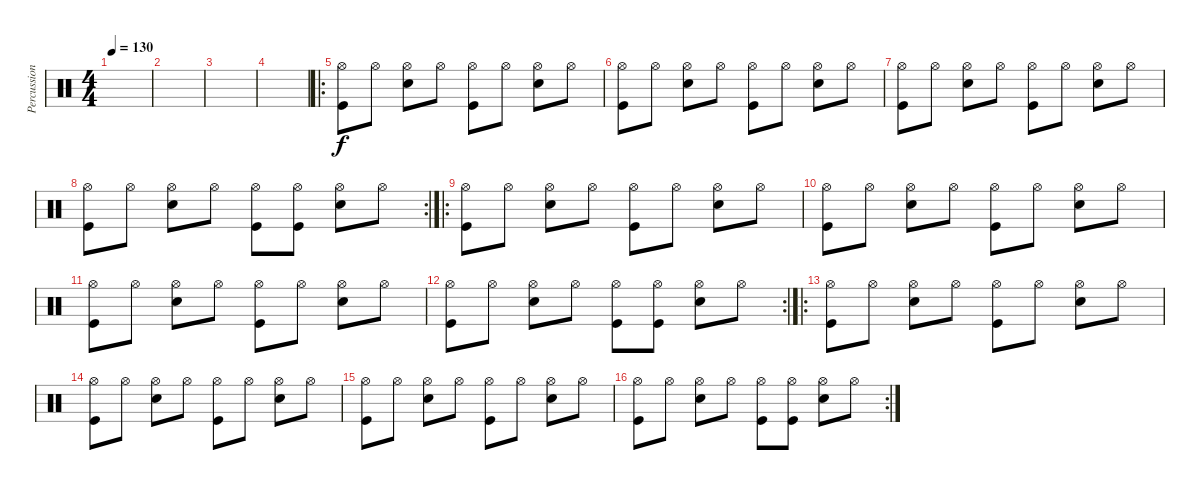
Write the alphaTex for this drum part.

\track ("Percussion" "Percussion") {instrument percussion}
\staff {score}
\articulation defaults
\ts (4 4)
\tempo 130
\clef neutral
\ks c
|
|
|
|
\ro
("Hi-Hat (open)" "Kick (hit)").8 "Hi-Hat (open)".8 ("Hi-Hat (open)" "Snare (hit) 2").8 "Hi-Hat (open)".8 ("Hi-Hat (open)" "Kick (hit)").8 "Hi-Hat (open)".8 ("Hi-Hat (open)" "Snare (hit) 2").8 "Hi-Hat (open)".8 |
("Hi-Hat (open)" "Kick (hit)").8 "Hi-Hat (open)".8 ("Hi-Hat (open)" "Snare (hit) 2").8 "Hi-Hat (open)".8 ("Hi-Hat (open)" "Kick (hit)").8 "Hi-Hat (open)".8 ("Hi-Hat (open)" "Snare (hit) 2").8 "Hi-Hat (open)".8 |
("Hi-Hat (open)" "Kick (hit)").8 "Hi-Hat (open)".8 ("Hi-Hat (open)" "Snare (hit) 2").8 "Hi-Hat (open)".8 ("Hi-Hat (open)" "Kick (hit)").8 "Hi-Hat (open)".8 ("Hi-Hat (open)" "Snare (hit) 2").8 "Hi-Hat (open)".8 |
\rc 2
("Hi-Hat (open)" "Kick (hit)").8 "Hi-Hat (open)".8 ("Hi-Hat (open)" "Snare (hit) 2").8 "Hi-Hat (open)".8 ("Hi-Hat (open)" "Kick (hit)").8 ("Hi-Hat (open)" "Kick (hit)").8 ("Hi-Hat (open)" "Snare (hit) 2").8 "Hi-Hat (open)".8 |
\ro
("Hi-Hat (open)" "Kick (hit)").8 "Hi-Hat (open)".8 ("Hi-Hat (open)" "Snare (hit) 2").8 "Hi-Hat (open)".8 ("Hi-Hat (open)" "Kick (hit)").8 "Hi-Hat (open)".8 ("Hi-Hat (open)" "Snare (hit) 2").8 "Hi-Hat (open)".8 |
("Hi-Hat (open)" "Kick (hit)").8 "Hi-Hat (open)".8 ("Hi-Hat (open)" "Snare (hit) 2").8 "Hi-Hat (open)".8 ("Hi-Hat (open)" "Kick (hit)").8 "Hi-Hat (open)".8 ("Hi-Hat (open)" "Snare (hit) 2").8 "Hi-Hat (open)".8 |
("Hi-Hat (open)" "Kick (hit)").8 "Hi-Hat (open)".8 ("Hi-Hat (open)" "Snare (hit) 2").8 "Hi-Hat (open)".8 ("Hi-Hat (open)" "Kick (hit)").8 "Hi-Hat (open)".8 ("Hi-Hat (open)" "Snare (hit) 2").8 "Hi-Hat (open)".8 |
\rc 2
("Hi-Hat (open)" "Kick (hit)").8 "Hi-Hat (open)".8 ("Hi-Hat (open)" "Snare (hit) 2").8 "Hi-Hat (open)".8 ("Hi-Hat (open)" "Kick (hit)").8 ("Hi-Hat (open)" "Kick (hit)").8 ("Hi-Hat (open)" "Snare (hit) 2").8 "Hi-Hat (open)".8 |
\ro
("Hi-Hat (open)" "Kick (hit)").8 "Hi-Hat (open)".8 ("Hi-Hat (open)" "Snare (hit) 2").8 "Hi-Hat (open)".8 ("Hi-Hat (open)" "Kick (hit)").8 "Hi-Hat (open)".8 ("Hi-Hat (open)" "Snare (hit) 2").8 "Hi-Hat (open)".8 |
("Hi-Hat (open)" "Kick (hit)").8 "Hi-Hat (open)".8 ("Hi-Hat (open)" "Snare (hit) 2").8 "Hi-Hat (open)".8 ("Hi-Hat (open)" "Kick (hit)").8 "Hi-Hat (open)".8 ("Hi-Hat (open)" "Snare (hit) 2").8 "Hi-Hat (open)".8 |
("Hi-Hat (open)" "Kick (hit)").8 "Hi-Hat (open)".8 ("Hi-Hat (open)" "Snare (hit) 2").8 "Hi-Hat (open)".8 ("Hi-Hat (open)" "Kick (hit)").8 "Hi-Hat (open)".8 ("Hi-Hat (open)" "Snare (hit) 2").8 "Hi-Hat (open)".8 |
\rc 2
("Hi-Hat (open)" "Kick (hit)").8 "Hi-Hat (open)".8 ("Hi-Hat (open)" "Snare (hit) 2").8 "Hi-Hat (open)".8 ("Hi-Hat (open)" "Kick (hit)").8 ("Hi-Hat (open)" "Kick (hit)").8 ("Hi-Hat (open)" "Snare (hit) 2").8 "Hi-Hat (open)".8
